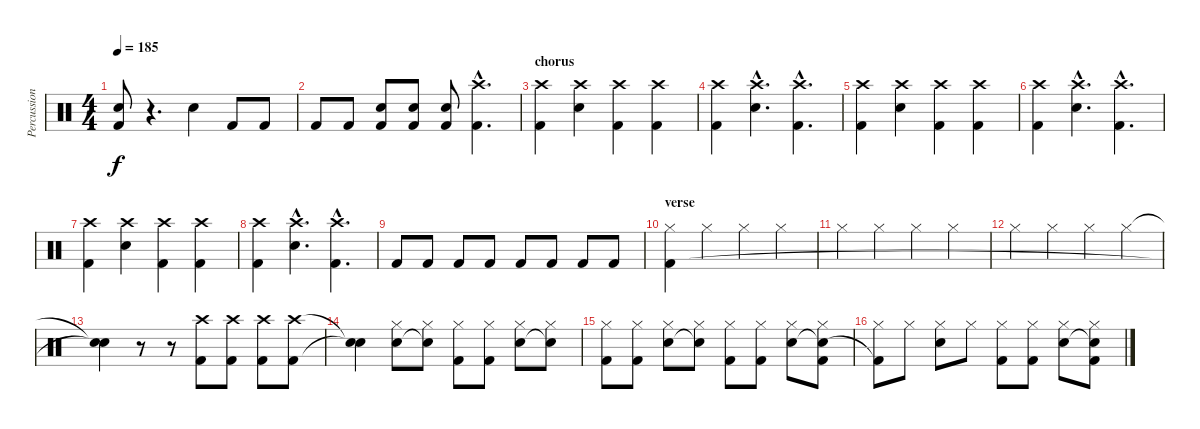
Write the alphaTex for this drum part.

\track ("Percussion" "Percussion") {instrument percussion}
\staff {score}
\articulation defaults
\ts (4 4)
\tempo 185
\clef neutral
\ks c
("Snare (hit) 2" "Kick (hit) 2").8{dy f} r.4{d} "Snare (hit) 2".4 "Kick (hit) 2".8 "Kick (hit) 2".8 |
"Kick (hit) 2".8 "Kick (hit) 2".8 ("Snare (hit) 2" "Kick (hit) 2").8 ("Snare (hit) 2" "Kick (hit) 2").8 ("Snare (hit) 2" "Kick (hit) 2").8 ("Crash high (hit)"{hac} "Kick (hit) 2"{hac}).4{d} |
\section ("" "chorus")
("Crash high (hit)" "Kick (hit) 2").4 ("Crash high (hit)" "Snare (hit) 2").4 ("Crash high (hit)" "Kick (hit) 2").4 ("Crash high (hit)" "Kick (hit) 2").4 |
("Crash high (hit)" "Kick (hit) 2").4 ("Crash high (hit)"{hac} "Snare (hit) 2"{hac}).4{d} ("Crash high (hit)"{hac} "Kick (hit) 2"{hac}).4{d} |
("Crash high (hit)" "Kick (hit) 2").4 ("Crash high (hit)" "Snare (hit) 2").4 ("Crash high (hit)" "Kick (hit) 2").4 ("Crash high (hit)" "Kick (hit) 2").4 |
("Crash high (hit)" "Kick (hit) 2").4 ("Crash high (hit)"{hac} "Snare (hit) 2"{hac}).4{d} ("Crash high (hit)"{hac} "Kick (hit) 2"{hac}).4{d} |
("Crash high (hit)" "Kick (hit) 2").4 ("Crash high (hit)" "Snare (hit) 2").4 ("Crash high (hit)" "Kick (hit) 2").4 ("Crash high (hit)" "Kick (hit) 2").4 |
("Crash high (hit)" "Kick (hit) 2").4 ("Crash high (hit)"{hac} "Snare (hit) 2"{hac}).4{d} ("Crash high (hit)"{hac} "Kick (hit) 2"{hac}).4{d} |
"Kick (hit) 2".8 "Kick (hit) 2".8 "Kick (hit) 2".8 "Kick (hit) 2".8 "Kick (hit) 2".8 "Kick (hit) 2".8 "Kick (hit) 2".8 "Kick (hit) 2".8 |
\section ("" "verse")
("Hi-Hat (closed)" "Kick (hit) 2").4 "Hi-Hat (closed)".4 "Hi-Hat (closed)".4 "Hi-Hat (closed)".4 |
"Hi-Hat (closed)".4 "Hi-Hat (closed)".4 "Hi-Hat (closed)".4 "Hi-Hat (closed)".4 |
"Hi-Hat (closed)".4 "Hi-Hat (closed)".4 "Hi-Hat (closed)".4 "Hi-Hat (closed)".4 |
("Snare (hit)"{t} "Snare (hit)"{t}).4 r.8 r.8 ("Crash high (hit)" "Kick (hit) 2").8 ("Crash high (hit)" "Kick (hit) 2").8 ("Crash high (hit)" "Kick (hit) 2").8 ("Crash high (hit)" "Kick (hit) 2").8 |
("Snare (hit)"{t} "Snare (hit)"{t}).4 ("Hi-Hat (closed)" "Snare (hit) 2").8 ("Hi-Hat (closed)" "Snare (hit) 2"{t}).8 ("Hi-Hat (closed)" "Kick (hit) 2").8 ("Hi-Hat (closed)" "Kick (hit) 2").8 ("Hi-Hat (closed)" "Snare (hit) 2").8 ("Hi-Hat (closed)" "Snare (hit)"{t}).8 |
("Hi-Hat (closed)" "Kick (hit) 2").8 ("Hi-Hat (closed)" "Kick (hit) 2").8 ("Hi-Hat (closed)" "Snare (hit) 2").8 ("Hi-Hat (closed)" "Snare (hit)"{t}).8 ("Hi-Hat (closed)" "Kick (hit) 2").8 ("Hi-Hat (closed)" "Kick (hit) 2").8 ("Hi-Hat (closed)" "Snare (hit) 2").8 ("Hi-Hat (closed)" "Snare (hit)"{t} "Kick (hit) 2").8 |
("Hi-Hat (closed)" "Kick (hit) 2"{t}).8 "Hi-Hat (closed)".8 ("Hi-Hat (closed)" "Snare (hit) 2").8 "Hi-Hat (closed)".8 ("Hi-Hat (closed)" "Kick (hit) 2").8 ("Hi-Hat (closed)" "Kick (hit) 2").8 ("Hi-Hat (closed)" "Snare (hit) 2").8 ("Hi-Hat (closed)" "Snare (hit)"{t} "Kick (hit) 2").8
